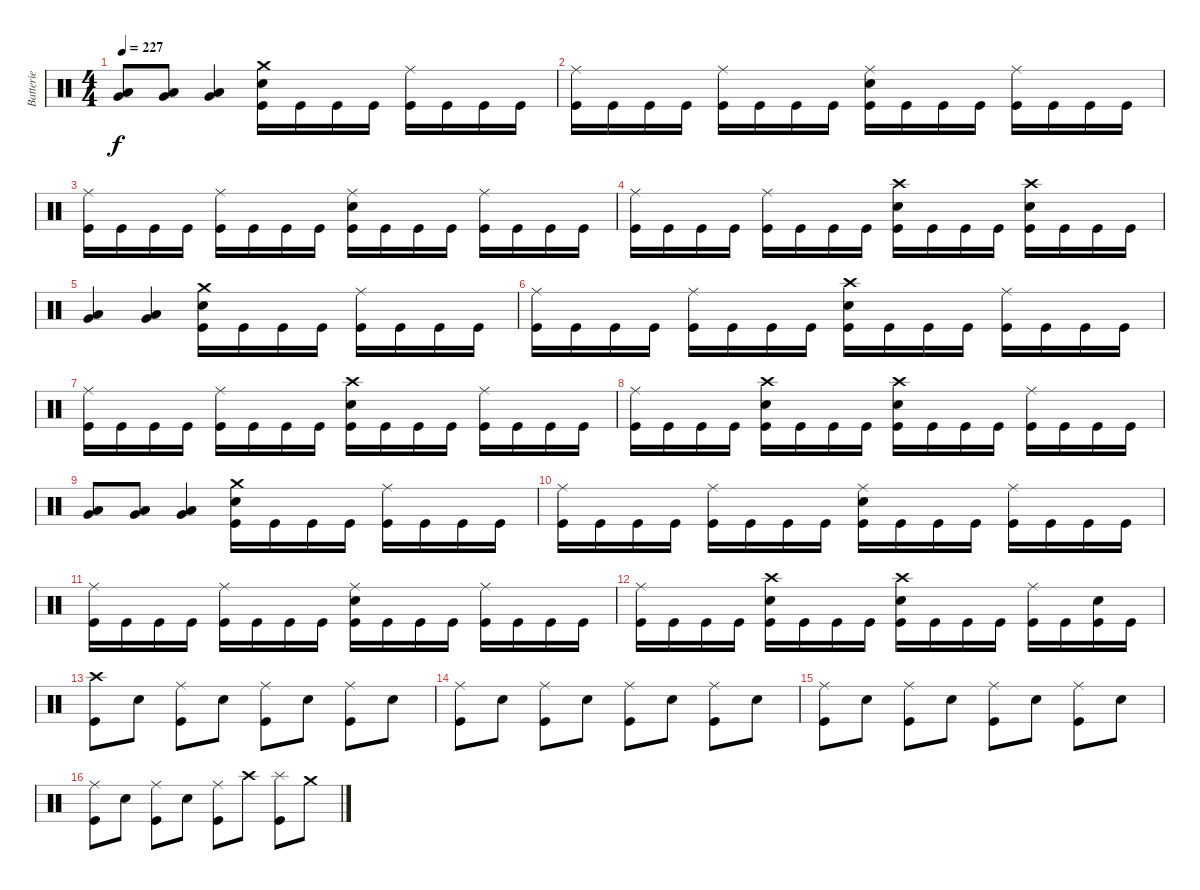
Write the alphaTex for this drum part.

\track ("Batterie" "Batterie") {instrument percussion}
\staff {score}
\articulation defaults
\ts (4 4)
\tempo 227
\clef neutral
\ks c
("Low Tom (hit)" "Very Low Tom (hit)").8{dy f} ("Low Tom (hit)" "Very Low Tom (hit)").8 ("Low Tom (hit)" "Very Low Tom (hit)").4 ("Crash medium (hit)" "Electric Snare (hit)" "Kick (hit)").16 "Kick (hit)".16 "Kick (hit)".16 "Kick (hit)".16 ("Ride (middle)" "Kick (hit)").16 "Kick (hit)".16 "Kick (hit)".16 "Kick (hit)".16 |
("Ride (middle)" "Kick (hit)").16 "Kick (hit)".16 "Kick (hit)".16 "Kick (hit)".16 ("Ride (middle)" "Kick (hit)").16 "Kick (hit)".16 "Kick (hit)".16 "Kick (hit)".16 ("Ride (middle)" "Electric Snare (hit)" "Kick (hit)").16 "Kick (hit)".16 "Kick (hit)".16 "Kick (hit)".16 ("Ride (middle)" "Kick (hit)").16 "Kick (hit)".16 "Kick (hit)".16 "Kick (hit)".16 |
("Ride (middle)" "Kick (hit)").16 "Kick (hit)".16 "Kick (hit)".16 "Kick (hit)".16 ("Ride (middle)" "Kick (hit)").16 "Kick (hit)".16 "Kick (hit)".16 "Kick (hit)".16 ("Ride (middle)" "Electric Snare (hit)" "Kick (hit)").16 "Kick (hit)".16 "Kick (hit)".16 "Kick (hit)".16 ("Ride (middle)" "Kick (hit)").16 "Kick (hit)".16 "Kick (hit)".16 "Kick (hit)".16 |
("Ride (middle)" "Kick (hit)").16 "Kick (hit)".16 "Kick (hit)".16 "Kick (hit)".16 ("Ride (middle)" "Kick (hit)").16 "Kick (hit)".16 "Kick (hit)".16 "Kick (hit)".16 ("Crash high (hit)" "Electric Snare (hit)" "Kick (hit)").16 "Kick (hit)".16 "Kick (hit)".16 "Kick (hit)".16 ("Crash high (hit)" "Electric Snare (hit)" "Kick (hit)").16 "Kick (hit)".16 "Kick (hit)".16 "Kick (hit)".16 |
("Low Tom (hit)" "Very Low Tom (hit)").4 ("Low Tom (hit)" "Very Low Tom (hit)").4 ("Crash medium (hit)" "Electric Snare (hit)" "Kick (hit)").16 "Kick (hit)".16 "Kick (hit)".16 "Kick (hit)".16 ("Ride (middle)" "Kick (hit)").16 "Kick (hit)".16 "Kick (hit)".16 "Kick (hit)".16 |
("Ride (middle)" "Kick (hit)").16 "Kick (hit)".16 "Kick (hit)".16 "Kick (hit)".16 ("Ride (middle)" "Kick (hit)").16 "Kick (hit)".16 "Kick (hit)".16 "Kick (hit)".16 ("Crash high (hit)" "Electric Snare (hit)" "Kick (hit)").16 "Kick (hit)".16 "Kick (hit)".16 "Kick (hit)".16 ("Ride (middle)" "Kick (hit)").16 "Kick (hit)".16 "Kick (hit)".16 "Kick (hit)".16 |
("Ride (middle)" "Kick (hit)").16 "Kick (hit)".16 "Kick (hit)".16 "Kick (hit)".16 ("Ride (middle)" "Kick (hit)").16 "Kick (hit)".16 "Kick (hit)".16 "Kick (hit)".16 ("Crash high (hit)" "Electric Snare (hit)" "Kick (hit)").16 "Kick (hit)".16 "Kick (hit)".16 "Kick (hit)".16 ("Ride (middle)" "Kick (hit)").16 "Kick (hit)".16 "Kick (hit)".16 "Kick (hit)".16 |
("Ride (middle)" "Kick (hit)").16 "Kick (hit)".16 "Kick (hit)".16 "Kick (hit)".16 ("Crash high (hit)" "Electric Snare (hit)" "Kick (hit)").16 "Kick (hit)".16 "Kick (hit)".16 "Kick (hit)".16 ("Crash high (hit)" "Electric Snare (hit)" "Kick (hit)").16 "Kick (hit)".16 "Kick (hit)".16 "Kick (hit)".16 ("Ride (middle)" "Kick (hit)").16 "Kick (hit)".16 "Kick (hit)".16 "Kick (hit)".16 |
("Low Tom (hit)" "Very Low Tom (hit)").8 ("Low Tom (hit)" "Very Low Tom (hit)").8 ("Low Tom (hit)" "Very Low Tom (hit)").4 ("Crash medium (hit)" "Electric Snare (hit)" "Kick (hit)").16 "Kick (hit)".16 "Kick (hit)".16 "Kick (hit)".16 ("Ride (middle)" "Kick (hit)").16 "Kick (hit)".16 "Kick (hit)".16 "Kick (hit)".16 |
("Ride (middle)" "Kick (hit)").16 "Kick (hit)".16 "Kick (hit)".16 "Kick (hit)".16 ("Ride (middle)" "Kick (hit)").16 "Kick (hit)".16 "Kick (hit)".16 "Kick (hit)".16 ("Ride (middle)" "Electric Snare (hit)" "Kick (hit)").16 "Kick (hit)".16 "Kick (hit)".16 "Kick (hit)".16 ("Ride (middle)" "Kick (hit)").16 "Kick (hit)".16 "Kick (hit)".16 "Kick (hit)".16 |
("Ride (middle)" "Kick (hit)").16 "Kick (hit)".16 "Kick (hit)".16 "Kick (hit)".16 ("Ride (middle)" "Kick (hit)").16 "Kick (hit)".16 "Kick (hit)".16 "Kick (hit)".16 ("Ride (middle)" "Electric Snare (hit)" "Kick (hit)").16 "Kick (hit)".16 "Kick (hit)".16 "Kick (hit)".16 ("Ride (middle)" "Kick (hit)").16 "Kick (hit)".16 "Kick (hit)".16 "Kick (hit)".16 |
("Ride (middle)" "Kick (hit)").16 "Kick (hit)".16 "Kick (hit)".16 "Kick (hit)".16 ("Crash high (hit)" "Electric Snare (hit)" "Kick (hit)").16 "Kick (hit)".16 "Kick (hit)".16 "Kick (hit)".16 ("Crash high (hit)" "Electric Snare (hit)" "Kick (hit)").16 "Kick (hit)".16 "Kick (hit)".16 "Kick (hit)".16 ("Ride (middle)" "Kick (hit)").16 "Kick (hit)".16 ("Electric Snare (hit)" "Kick (hit)").16 "Kick (hit)".16 |
("Crash high (hit)" "Kick (hit)").8 "Electric Snare (hit)".8 ("Ride (middle)" "Kick (hit)").8 "Electric Snare (hit)".8 ("Ride (middle)" "Kick (hit)").8 "Electric Snare (hit)".8 ("Ride (middle)" "Kick (hit)").8 "Electric Snare (hit)".8 |
("Ride (middle)" "Kick (hit)").8 "Electric Snare (hit)".8 ("Ride (middle)" "Kick (hit)").8 "Electric Snare (hit)".8 ("Ride (middle)" "Kick (hit)").8 "Electric Snare (hit)".8 ("Ride (middle)" "Kick (hit)").8 "Electric Snare (hit)".8 |
("Ride (middle)" "Kick (hit)").8 "Electric Snare (hit)".8 ("Ride (middle)" "Kick (hit)").8 "Electric Snare (hit)".8 ("Ride (middle)" "Kick (hit)").8 "Electric Snare (hit)".8 ("Ride (middle)" "Kick (hit)").8 "Electric Snare (hit)".8 |
("Ride (middle)" "Kick (hit)").8 "Electric Snare (hit)".8 ("Ride (middle)" "Kick (hit)").8 "Electric Snare (hit)".8 ("Ride (middle)" "Kick (hit)").8 "Crash high (hit)".8 ("Splash (hit)" "Kick (hit)").8 "Crash medium (hit)".8
